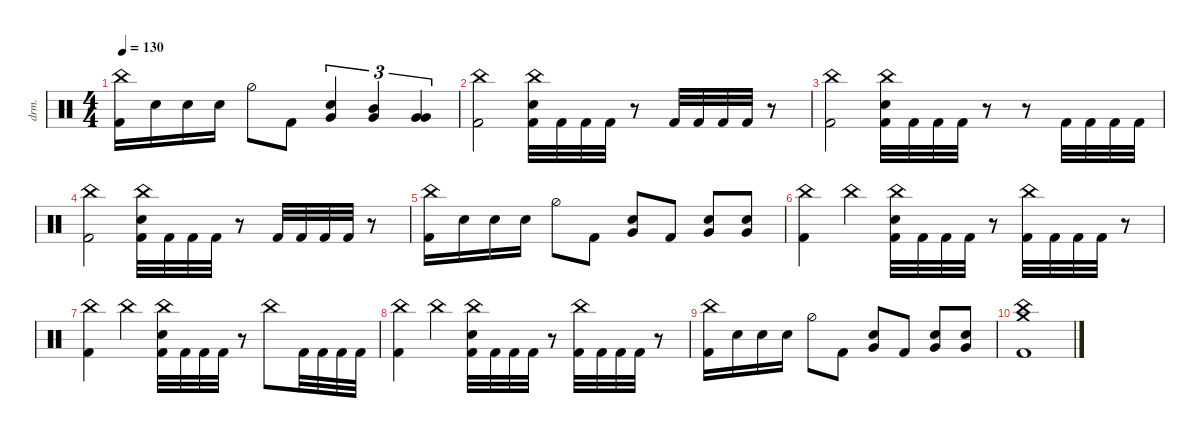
\defaultSystemsLayout 4
\hideDynamics
\bracketExtendMode nobrackets
\track ("Drums - Šimon" "drm.") {instrument percussion}
\staff {score}
\articulation defaults
\ts (4 4)
\tempo 130
\clef neutral
\ks c
("Kick (hit) 2" "China (hit)").16{dy ff beam Down} "Snare (hit) 2".16{beam Down} "Snare (hit) 2".16{beam Down} "Snare (hit) 2".16{beam Down} "Hi-Hat (half)".8{beam Down} "Kick (hit) 2".8{beam Down} ("Snare (hit) 2" "Very Low Tom (hit)").4{tu (3 2) beam Up} ("Very Low Tom (hit)" "Mid Tom (hit)").4{tu (3 2) beam Up} ("Very Low Tom (hit)" "Very Low Tom (hit)").4{tu (3 2) beam Up} |
("Kick (hit) 2" "China (hit)").2{beam Down} ("China (hit)" "Snare (hit) 2" "Kick (hit) 2").32{beam Down} "Kick (hit) 2".32{beam Down} "Kick (hit) 2".32{beam Down} "Kick (hit) 2".32{beam Down} r.8{beam Down} "Kick (hit) 2".32{beam Up} "Kick (hit) 2".32{beam Up} "Kick (hit) 2".32{beam Up} "Kick (hit) 2".32{beam Up} r.8{beam Down} |
("Kick (hit) 2" "China (hit)").2{beam Down} ("China (hit)" "Snare (hit) 2" "Kick (hit) 2").32{beam Down} "Kick (hit) 2".32{beam Down} "Kick (hit) 2".32{beam Down} "Kick (hit) 2".32{beam Down} r.8{beam Down} r.8{beam Down} "Kick (hit) 2".32{beam Up} "Kick (hit) 2".32{beam Up} "Kick (hit) 2".32{beam Up} "Kick (hit) 2".32{beam Up} |
("Kick (hit) 2" "China (hit)").2{beam Down} ("China (hit)" "Snare (hit) 2" "Kick (hit) 2").32{beam Down} "Kick (hit) 2".32{beam Down} "Kick (hit) 2".32{beam Down} "Kick (hit) 2".32{beam Down} r.8{beam Down} "Kick (hit) 2".32{beam Up} "Kick (hit) 2".32{beam Up} "Kick (hit) 2".32{beam Up} "Kick (hit) 2".32{beam Up} r.8{beam Down} |
("Kick (hit) 2" "China (hit)").16{beam Down} "Snare (hit) 2".16{beam Down} "Snare (hit) 2".16{beam Down} "Snare (hit) 2".16{beam Down} "Hi-Hat (half)".8{beam Down} "Kick (hit) 2".8{beam Down} ("Snare (hit) 2" "Very Low Tom (hit)").8{beam Up} "Kick (hit) 2".8{beam Up} ("Snare (hit) 2" "Very Low Tom (hit)").8{beam Up} ("Snare (hit) 2" "Very Low Tom (hit)").8{beam Up} |
("Kick (hit) 2" "China (hit)").4{beam Down} "China (hit)".4{beam Down} ("China (hit)" "Snare (hit) 2" "Kick (hit) 2").32{beam Down} "Kick (hit) 2".32{beam Down} "Kick (hit) 2".32{beam Down} "Kick (hit) 2".32{beam Down} r.8{beam Down} ("China (hit)" "Kick (hit) 2").32{beam Down} "Kick (hit) 2".32{beam Down} "Kick (hit) 2".32{beam Down} "Kick (hit) 2".32{beam Down} r.8{beam Down} |
("Kick (hit) 2" "China (hit)").4{beam Down} "China (hit)".4{beam Down} ("China (hit)" "Snare (hit) 2" "Kick (hit) 2").32{beam Down} "Kick (hit) 2".32{beam Down} "Kick (hit) 2".32{beam Down} "Kick (hit) 2".32{beam Down} r.8{beam Down} "China (hit)".8{beam Down} "Kick (hit) 2".32{beam Down} "Kick (hit) 2".32{beam Down} "Kick (hit) 2".32{beam Down} "Kick (hit) 2".32{beam Down} |
("Kick (hit) 2" "China (hit)").4{beam Down} "China (hit)".4{beam Down} ("China (hit)" "Snare (hit) 2" "Kick (hit) 2").32{beam Down} "Kick (hit) 2".32{beam Down} "Kick (hit) 2".32{beam Down} "Kick (hit) 2".32{beam Down} r.8{beam Down} ("China (hit)" "Kick (hit) 2").32{beam Down} "Kick (hit) 2".32{beam Down} "Kick (hit) 2".32{beam Down} "Kick (hit) 2".32{beam Down} r.8{beam Down} |
("Kick (hit) 2" "China (hit)").16{beam Down} "Snare (hit) 2".16{beam Down} "Snare (hit) 2".16{beam Down} "Snare (hit) 2".16{beam Down} "Hi-Hat (half)".8{beam Down} "Kick (hit) 2".8{beam Down} ("Snare (hit) 2" "Very Low Tom (hit)").8{beam Up} "Kick (hit) 2".8{beam Up} ("Snare (hit) 2" "Very Low Tom (hit)").8{beam Up} ("Snare (hit) 2" "Very Low Tom (hit)").8{beam Up} |
("Kick (hit) 2" "Crash medium (hit)" "China (hit)").1{beam Down}
